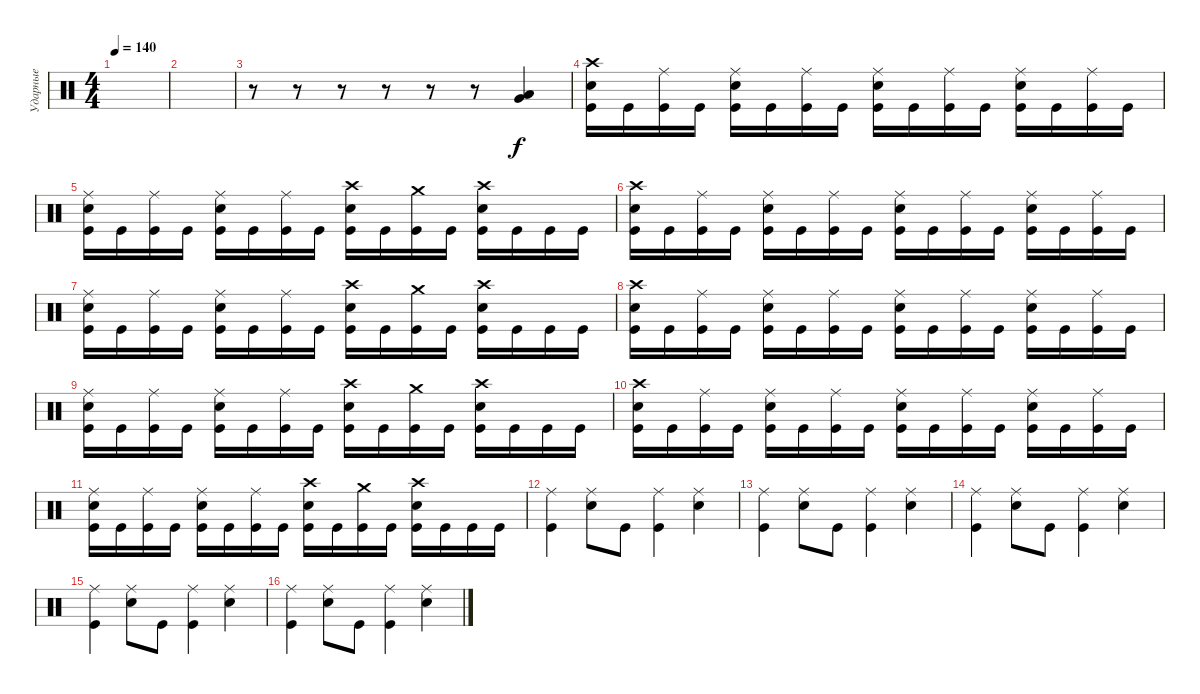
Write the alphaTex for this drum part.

\track ("Ударные" "Ударные") {instrument percussion}
\staff {score}
\articulation defaults
\ts (4 4)
\tempo 140
\clef neutral
\ks c
|
|
r.8 r.8 r.8 r.8 r.8 r.8 ("Very Low Tom (hit)" "Low Tom (hit)").4 |
("Crash high (hit)" "Electric Snare (hit)" "Kick (hit)").16 "Kick (hit)".16 ("Ride (middle)" "Kick (hit)").16 "Kick (hit)".16 ("Ride (middle)" "Electric Snare (hit)" "Kick (hit)").16 "Kick (hit)".16 ("Ride (middle)" "Kick (hit)").16 "Kick (hit)".16 ("Ride (middle)" "Electric Snare (hit)" "Kick (hit)").16 "Kick (hit)".16 ("Ride (middle)" "Kick (hit)").16 "Kick (hit)".16 ("Ride (middle)" "Electric Snare (hit)" "Kick (hit)").16 "Kick (hit)".16 ("Ride (middle)" "Kick (hit)").16 "Kick (hit)".16 |
("Ride (middle)" "Electric Snare (hit)" "Kick (hit)").16 "Kick (hit)".16 ("Ride (middle)" "Kick (hit)").16 "Kick (hit)".16 ("Ride (middle)" "Electric Snare (hit)" "Kick (hit)").16 "Kick (hit)".16 ("Ride (middle)" "Kick (hit)").16 "Kick (hit)".16 ("Crash high (hit)" "Electric Snare (hit)" "Kick (hit)").16 "Kick (hit)".16 ("Crash medium (hit)" "Kick (hit)").16 "Kick (hit)".16 ("Crash high (hit)" "Electric Snare (hit)" "Kick (hit)").16 "Kick (hit)".16 "Kick (hit)".16 "Kick (hit)".16 |
("Crash high (hit)" "Electric Snare (hit)" "Kick (hit)").16 "Kick (hit)".16 ("Ride (middle)" "Kick (hit)").16 "Kick (hit)".16 ("Ride (middle)" "Electric Snare (hit)" "Kick (hit)").16 "Kick (hit)".16 ("Ride (middle)" "Kick (hit)").16 "Kick (hit)".16 ("Ride (middle)" "Electric Snare (hit)" "Kick (hit)").16 "Kick (hit)".16 ("Ride (middle)" "Kick (hit)").16 "Kick (hit)".16 ("Ride (middle)" "Electric Snare (hit)" "Kick (hit)").16 "Kick (hit)".16 ("Ride (middle)" "Kick (hit)").16 "Kick (hit)".16 |
("Ride (middle)" "Electric Snare (hit)" "Kick (hit)").16 "Kick (hit)".16 ("Ride (middle)" "Kick (hit)").16 "Kick (hit)".16 ("Ride (middle)" "Electric Snare (hit)" "Kick (hit)").16 "Kick (hit)".16 ("Ride (middle)" "Kick (hit)").16 "Kick (hit)".16 ("Crash high (hit)" "Electric Snare (hit)" "Kick (hit)").16 "Kick (hit)".16 ("Crash medium (hit)" "Kick (hit)").16 "Kick (hit)".16 ("Crash high (hit)" "Electric Snare (hit)" "Kick (hit)").16 "Kick (hit)".16 "Kick (hit)".16 "Kick (hit)".16 |
("Crash high (hit)" "Electric Snare (hit)" "Kick (hit)").16 "Kick (hit)".16 ("Ride (middle)" "Kick (hit)").16 "Kick (hit)".16 ("Ride (middle)" "Electric Snare (hit)" "Kick (hit)").16 "Kick (hit)".16 ("Ride (middle)" "Kick (hit)").16 "Kick (hit)".16 ("Ride (middle)" "Electric Snare (hit)" "Kick (hit)").16 "Kick (hit)".16 ("Ride (middle)" "Kick (hit)").16 "Kick (hit)".16 ("Ride (middle)" "Electric Snare (hit)" "Kick (hit)").16 "Kick (hit)".16 ("Ride (middle)" "Kick (hit)").16 "Kick (hit)".16 |
("Ride (middle)" "Electric Snare (hit)" "Kick (hit)").16 "Kick (hit)".16 ("Ride (middle)" "Kick (hit)").16 "Kick (hit)".16 ("Ride (middle)" "Electric Snare (hit)" "Kick (hit)").16 "Kick (hit)".16 ("Ride (middle)" "Kick (hit)").16 "Kick (hit)".16 ("Crash high (hit)" "Electric Snare (hit)" "Kick (hit)").16 "Kick (hit)".16 ("Crash medium (hit)" "Kick (hit)").16 "Kick (hit)".16 ("Crash high (hit)" "Electric Snare (hit)" "Kick (hit)").16 "Kick (hit)".16 "Kick (hit)".16 "Kick (hit)".16 |
("Crash high (hit)" "Electric Snare (hit)" "Kick (hit)").16 "Kick (hit)".16 ("Ride (middle)" "Kick (hit)").16 "Kick (hit)".16 ("Ride (middle)" "Electric Snare (hit)" "Kick (hit)").16 "Kick (hit)".16 ("Ride (middle)" "Kick (hit)").16 "Kick (hit)".16 ("Ride (middle)" "Electric Snare (hit)" "Kick (hit)").16 "Kick (hit)".16 ("Ride (middle)" "Kick (hit)").16 "Kick (hit)".16 ("Ride (middle)" "Electric Snare (hit)" "Kick (hit)").16 "Kick (hit)".16 ("Ride (middle)" "Kick (hit)").16 "Kick (hit)".16 |
("Ride (middle)" "Electric Snare (hit)" "Kick (hit)").16 "Kick (hit)".16 ("Ride (middle)" "Kick (hit)").16 "Kick (hit)".16 ("Ride (middle)" "Electric Snare (hit)" "Kick (hit)").16 "Kick (hit)".16 ("Ride (middle)" "Kick (hit)").16 "Kick (hit)".16 ("Crash high (hit)" "Electric Snare (hit)" "Kick (hit)").16 "Kick (hit)".16 ("Crash medium (hit)" "Kick (hit)").16 "Kick (hit)".16 ("Crash high (hit)" "Electric Snare (hit)" "Kick (hit)").16 "Kick (hit)".16 "Kick (hit)".16 "Kick (hit)".16 |
("Ride (middle)" "Kick (hit)").4 ("Ride (middle)" "Electric Snare (hit)").8 "Kick (hit)".8 ("Ride (middle)" "Kick (hit)").4 ("Ride (middle)" "Electric Snare (hit)").4 |
("Ride (middle)" "Kick (hit)").4 ("Ride (middle)" "Electric Snare (hit)").8 "Kick (hit)".8 ("Ride (middle)" "Kick (hit)").4 ("Ride (middle)" "Electric Snare (hit)").4 |
("Ride (middle)" "Kick (hit)").4 ("Ride (middle)" "Electric Snare (hit)").8 "Kick (hit)".8 ("Ride (middle)" "Kick (hit)").4 ("Ride (middle)" "Electric Snare (hit)").4 |
("Ride (middle)" "Kick (hit)").4 ("Ride (middle)" "Electric Snare (hit)").8 "Kick (hit)".8 ("Ride (middle)" "Kick (hit)").4 ("Ride (middle)" "Electric Snare (hit)").4 |
("Ride (middle)" "Kick (hit)").4 ("Ride (middle)" "Electric Snare (hit)").8 "Kick (hit)".8 ("Ride (middle)" "Kick (hit)").4 ("Ride (middle)" "Electric Snare (hit)").4
